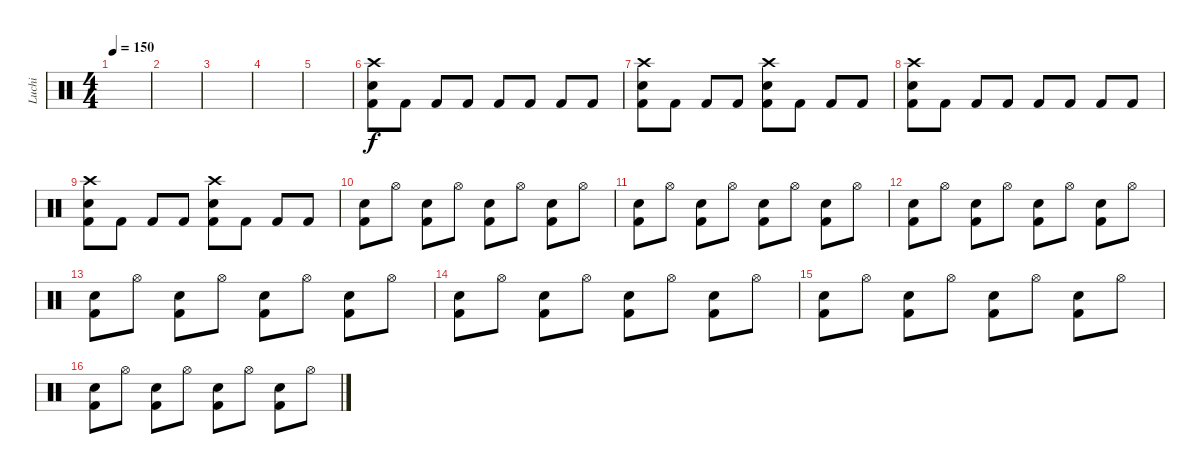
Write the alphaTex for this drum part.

\track ("Luchi" "Luchi") {instrument percussion}
\staff {score}
\articulation defaults
\ts (4 4)
\tempo 150
\clef neutral
\ks c
|
|
|
|
|
("Crash high (hit)" "Snare (hit) 2" "Kick (hit) 2").8 "Kick (hit) 2".8 "Kick (hit) 2".8 "Kick (hit) 2".8 "Kick (hit) 2".8 "Kick (hit) 2".8 "Kick (hit) 2".8 "Kick (hit) 2".8 |
("Crash high (hit)" "Snare (hit) 2" "Kick (hit) 2").8 "Kick (hit) 2".8 "Kick (hit) 2".8 "Kick (hit) 2".8 ("Crash high (hit)" "Snare (hit) 2" "Kick (hit) 2").8 "Kick (hit) 2".8 "Kick (hit) 2".8 "Kick (hit) 2".8 |
("Crash high (hit)" "Snare (hit) 2" "Kick (hit) 2").8 "Kick (hit) 2".8 "Kick (hit) 2".8 "Kick (hit) 2".8 "Kick (hit) 2".8 "Kick (hit) 2".8 "Kick (hit) 2".8 "Kick (hit) 2".8 |
("Crash high (hit)" "Snare (hit) 2" "Kick (hit) 2").8 "Kick (hit) 2".8 "Kick (hit) 2".8 "Kick (hit) 2".8 ("Crash high (hit)" "Snare (hit) 2" "Kick (hit) 2").8 "Kick (hit) 2".8 "Kick (hit) 2".8 "Kick (hit) 2".8 |
("Snare (hit) 2" "Kick (hit) 2").8 "Hi-Hat (open)".8 ("Snare (hit) 2" "Kick (hit) 2").8 "Hi-Hat (open)".8 ("Snare (hit) 2" "Kick (hit) 2").8 "Hi-Hat (open)".8 ("Snare (hit) 2" "Kick (hit) 2").8 "Hi-Hat (open)".8 |
("Snare (hit) 2" "Kick (hit) 2").8 "Hi-Hat (open)".8 ("Snare (hit) 2" "Kick (hit) 2").8 "Hi-Hat (open)".8 ("Snare (hit) 2" "Kick (hit) 2").8 "Hi-Hat (open)".8 ("Snare (hit) 2" "Kick (hit) 2").8 "Hi-Hat (open)".8 |
("Snare (hit) 2" "Kick (hit) 2").8 "Hi-Hat (open)".8 ("Snare (hit) 2" "Kick (hit) 2").8 "Hi-Hat (open)".8 ("Snare (hit) 2" "Kick (hit) 2").8 "Hi-Hat (open)".8 ("Snare (hit) 2" "Kick (hit) 2").8 "Hi-Hat (open)".8 |
("Snare (hit) 2" "Kick (hit) 2").8 "Hi-Hat (open)".8 ("Snare (hit) 2" "Kick (hit) 2").8 "Hi-Hat (open)".8 ("Snare (hit) 2" "Kick (hit) 2").8 "Hi-Hat (open)".8 ("Snare (hit) 2" "Kick (hit) 2").8 "Hi-Hat (open)".8 |
("Snare (hit) 2" "Kick (hit) 2").8 "Hi-Hat (open)".8 ("Snare (hit) 2" "Kick (hit) 2").8 "Hi-Hat (open)".8 ("Snare (hit) 2" "Kick (hit) 2").8 "Hi-Hat (open)".8 ("Snare (hit) 2" "Kick (hit) 2").8 "Hi-Hat (open)".8 |
("Snare (hit) 2" "Kick (hit) 2").8 "Hi-Hat (open)".8 ("Snare (hit) 2" "Kick (hit) 2").8 "Hi-Hat (open)".8 ("Snare (hit) 2" "Kick (hit) 2").8 "Hi-Hat (open)".8 ("Snare (hit) 2" "Kick (hit) 2").8 "Hi-Hat (open)".8 |
("Snare (hit) 2" "Kick (hit) 2").8 "Hi-Hat (open)".8 ("Snare (hit) 2" "Kick (hit) 2").8 "Hi-Hat (open)".8 ("Snare (hit) 2" "Kick (hit) 2").8 "Hi-Hat (open)".8 ("Snare (hit) 2" "Kick (hit) 2").8 "Hi-Hat (open)".8
